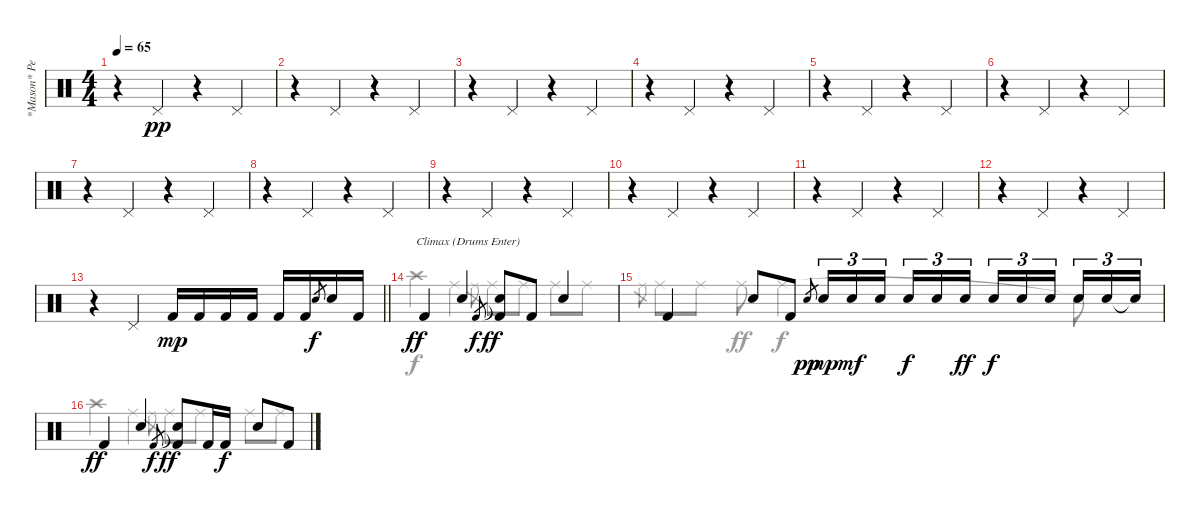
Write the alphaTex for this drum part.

\track ("*Mason* Percussion" "*Mason* Pe") {instrument percussion}
\staff {score}
\articulation defaults
\voice
\ts (4 4)
\tempo 65
\clef neutral
\ks c
r.4{dy pp} "Pedal Hi-Hat (hit)".4 r.4 "Pedal Hi-Hat (hit)".4 |
r.4 "Pedal Hi-Hat (hit)".4 r.4 "Pedal Hi-Hat (hit)".4 |
r.4 "Pedal Hi-Hat (hit)".4 r.4 "Pedal Hi-Hat (hit)".4 |
r.4 "Pedal Hi-Hat (hit)".4 r.4 "Pedal Hi-Hat (hit)".4 |
r.4 "Pedal Hi-Hat (hit)".4 r.4 "Pedal Hi-Hat (hit)".4 |
r.4 "Pedal Hi-Hat (hit)".4 r.4 "Pedal Hi-Hat (hit)".4 |
r.4 "Pedal Hi-Hat (hit)".4 r.4 "Pedal Hi-Hat (hit)".4 |
r.4 "Pedal Hi-Hat (hit)".4 r.4 "Pedal Hi-Hat (hit)".4 |
r.4 "Pedal Hi-Hat (hit)".4 r.4 "Pedal Hi-Hat (hit)".4 |
r.4 "Pedal Hi-Hat (hit)".4 r.4 "Pedal Hi-Hat (hit)".4 |
r.4 "Pedal Hi-Hat (hit)".4 r.4 "Pedal Hi-Hat (hit)".4 |
r.4 "Pedal Hi-Hat (hit)".4 r.4 "Pedal Hi-Hat (hit)".4 |
\barLineRight lightlight
r.4 "Pedal Hi-Hat (hit)".4 "Kick (hit) 2".16{dy mp volume 16} "Kick (hit) 2".16 "Kick (hit) 2".16 "Kick (hit) 2".16 "Kick (hit) 2".16 "Kick (hit) 2".16 "Snare (hit) 2".8{gr dy f} "Snare (hit) 2".16 "Kick (hit) 2".16 |
"Kick (hit) 2".4{txt "Climax (Drums Enter)" dy ff} "Snare (hit) 2".4 "Kick (hit) 2".8{gr dy f} ("Snare (hit)"{t} "Kick (hit) 2").8{dy ff} "Kick (hit) 2".8 "Snare (hit) 2".4 |
"Kick (hit) 2".4 "Snare (hit) 2".8 "Kick (hit) 2".8 "Snare (hit) 2".8{gr dy pp} "Snare (hit) 2".16{tu (3 2) dy mp} "Snare (hit) 2".16{tu (3 2) dy mf} "Snare (hit) 2".16{tu (3 2) beam splitsecondary} "Snare (hit) 2".16{tu (3 2) dy f} "Snare (hit) 2".16{tu (3 2)} "Snare (hit) 2".16{tu (3 2) dy ff} "Snare (hit) 2".16{tu (3 2) dy f} "Snare (hit) 2".16{tu (3 2)} "Snare (hit) 2".16{tu (3 2) beam splitsecondary} "Snare (hit) 2".16{tu (3 2)} "Snare (hit) 2".16{tu (3 2)} "Snare (hit)"{t}.16{tu (3 2)} |
"Kick (hit) 2".4{dy ff} "Snare (hit) 2".4 "Kick (hit) 2".8{gr dy f} ("Snare (hit)"{t} "Kick (hit) 2").8{dy ff} "Kick (hit) 2".16 "Kick (hit) 2".16{dy f} "Snare (hit) 2".8 "Kick (hit) 2".8
\voice
\clef neutral
\ottava regular
\simile none
\ks c
|
|
|
|
|
|
|
|
|
|
|
|
\barLineRight lightlight
|
"Crash high (hit)".4 "Ride (middle)".4 "Ride (middle)".8{gr} "Ride (middle)".8 "Ride (middle)".8 "Ride (middle)".8 "Ride (middle)".8 |
"Ride (middle)".8{gr} "Ride (middle)".8 "Ride (middle)".8 "Ride (middle)".8{dy ff} "Ride (middle)".2{dy f} "Snare (hit)"{t}.8 |
"Crash high (hit)".4 "Ride (middle)".4 "Ride (middle)".8{gr} "Ride (middle)".8 "Ride (middle)".8 "Ride (middle)".8 "Ride (middle)".8
